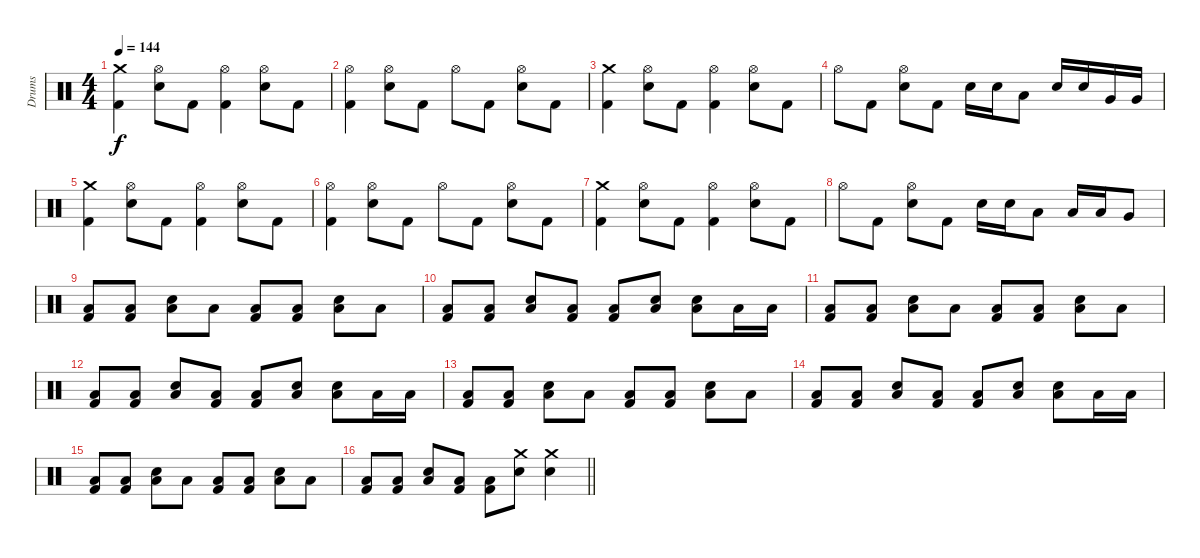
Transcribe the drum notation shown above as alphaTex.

\track ("Drums" "Drums") {instrument percussion}
\staff {score}
\articulation defaults
\ts (4 4)
\tempo 144
\clef neutral
\ks c
("Crash medium (hit)" "Kick (hit) 2").4{dy f} ("Hi-Hat (open)" "Electric Snare (hit)").8 "Kick (hit) 2".8 ("Hi-Hat (open)" "Kick (hit) 2").4 ("Hi-Hat (open)" "Electric Snare (hit)").8 "Kick (hit) 2".8 |
("Hi-Hat (open)" "Kick (hit) 2").4 ("Hi-Hat (open)" "Electric Snare (hit)").8 "Kick (hit) 2".8 "Hi-Hat (open)".8 "Kick (hit) 2".8 ("Hi-Hat (open)" "Electric Snare (hit)").8 "Kick (hit) 2".8 |
("Crash medium (hit)" "Kick (hit) 2").4 ("Hi-Hat (open)" "Electric Snare (hit)").8 "Kick (hit) 2".8 ("Hi-Hat (open)" "Kick (hit) 2").4 ("Hi-Hat (open)" "Electric Snare (hit)").8 "Kick (hit) 2".8 |
"Hi-Hat (open)".8 "Kick (hit) 2".8 ("Hi-Hat (open)" "Electric Snare (hit)").8 "Kick (hit) 2".8 "Electric Snare (hit)".16 "Electric Snare (hit)".16 "Low Tom (hit)".8 "Electric Snare (hit)".16 "Electric Snare (hit)".16 "Very Low Tom (hit)".16 "Very Low Tom (hit)".16 |
("Crash medium (hit)" "Kick (hit) 2").4 ("Hi-Hat (open)" "Electric Snare (hit)").8 "Kick (hit) 2".8 ("Hi-Hat (open)" "Kick (hit) 2").4 ("Hi-Hat (open)" "Electric Snare (hit)").8 "Kick (hit) 2".8 |
("Hi-Hat (open)" "Kick (hit) 2").4 ("Hi-Hat (open)" "Electric Snare (hit)").8 "Kick (hit) 2".8 "Hi-Hat (open)".8 "Kick (hit) 2".8 ("Hi-Hat (open)" "Electric Snare (hit)").8 "Kick (hit) 2".8 |
("Crash medium (hit)" "Kick (hit) 2").4 ("Hi-Hat (open)" "Electric Snare (hit)").8 "Kick (hit) 2".8 ("Hi-Hat (open)" "Kick (hit) 2").4 ("Hi-Hat (open)" "Electric Snare (hit)").8 "Kick (hit) 2".8 |
"Hi-Hat (open)".8 "Kick (hit) 2".8 ("Hi-Hat (open)" "Electric Snare (hit)").8 "Kick (hit) 2".8 "Electric Snare (hit)".16 "Electric Snare (hit)".16 "Low Tom (hit)".8 "Low Tom (hit)".16 "Low Tom (hit)".16 "Very Low Tom (hit)".8 |
("Low Floor Tom (hit)" "Kick (hit) 2").8 ("Low Floor Tom (hit)" "Kick (hit) 2").8 ("Electric Snare (hit)" "Low Floor Tom (hit)").8 "Low Floor Tom (hit)".8 ("Low Floor Tom (hit)" "Kick (hit) 2").8 ("Low Floor Tom (hit)" "Kick (hit) 2").8 ("Electric Snare (hit)" "Low Floor Tom (hit)").8 "Low Floor Tom (hit)".8 |
("Low Floor Tom (hit)" "Kick (hit) 2").8 ("Low Floor Tom (hit)" "Kick (hit) 2").8 ("Electric Snare (hit)" "Low Floor Tom (hit)").8 ("Low Floor Tom (hit)" "Kick (hit) 2").8 ("Low Floor Tom (hit)" "Kick (hit) 2").8 ("Electric Snare (hit)" "Low Floor Tom (hit)").8 ("Electric Snare (hit)" "Low Floor Tom (hit)").8 "Low Floor Tom (hit)".16 "Low Floor Tom (hit)".16 |
("Low Floor Tom (hit)" "Kick (hit) 2").8 ("Low Floor Tom (hit)" "Kick (hit) 2").8 ("Electric Snare (hit)" "Low Floor Tom (hit)").8 "Low Floor Tom (hit)".8 ("Low Floor Tom (hit)" "Kick (hit) 2").8 ("Low Floor Tom (hit)" "Kick (hit) 2").8 ("Electric Snare (hit)" "Low Floor Tom (hit)").8 "Low Floor Tom (hit)".8 |
("Low Floor Tom (hit)" "Kick (hit) 2").8 ("Low Floor Tom (hit)" "Kick (hit) 2").8 ("Electric Snare (hit)" "Low Floor Tom (hit)").8 ("Low Floor Tom (hit)" "Kick (hit) 2").8 ("Low Floor Tom (hit)" "Kick (hit) 2").8 ("Electric Snare (hit)" "Low Floor Tom (hit)").8 ("Electric Snare (hit)" "Low Floor Tom (hit)").8 "Low Floor Tom (hit)".16 "Low Floor Tom (hit)".16 |
("Low Floor Tom (hit)" "Kick (hit) 2").8 ("Low Floor Tom (hit)" "Kick (hit) 2").8 ("Electric Snare (hit)" "Low Floor Tom (hit)").8 "Low Floor Tom (hit)".8 ("Low Floor Tom (hit)" "Kick (hit) 2").8 ("Low Floor Tom (hit)" "Kick (hit) 2").8 ("Electric Snare (hit)" "Low Floor Tom (hit)").8 "Low Floor Tom (hit)".8 |
("Low Floor Tom (hit)" "Kick (hit) 2").8 ("Low Floor Tom (hit)" "Kick (hit) 2").8 ("Electric Snare (hit)" "Low Floor Tom (hit)").8 ("Low Floor Tom (hit)" "Kick (hit) 2").8 ("Low Floor Tom (hit)" "Kick (hit) 2").8 ("Electric Snare (hit)" "Low Floor Tom (hit)").8 ("Electric Snare (hit)" "Low Floor Tom (hit)").8 "Low Floor Tom (hit)".16 "Low Floor Tom (hit)".16 |
("Low Floor Tom (hit)" "Kick (hit) 2").8 ("Low Floor Tom (hit)" "Kick (hit) 2").8 ("Electric Snare (hit)" "Low Floor Tom (hit)").8 "Low Floor Tom (hit)".8 ("Low Floor Tom (hit)" "Kick (hit) 2").8 ("Low Floor Tom (hit)" "Kick (hit) 2").8 ("Electric Snare (hit)" "Low Floor Tom (hit)").8 "Low Floor Tom (hit)".8 |
\barLineRight lightlight
("Low Floor Tom (hit)" "Kick (hit) 2").8 ("Low Floor Tom (hit)" "Kick (hit) 2").8 ("Electric Snare (hit)" "Low Floor Tom (hit)").8 ("Low Floor Tom (hit)" "Kick (hit) 2").8 ("Low Floor Tom (hit)" "Kick (hit) 2").8 ("Crash medium (hit)" "Electric Snare (hit)").8 ("Crash medium (hit)" "Electric Snare (hit)").4
